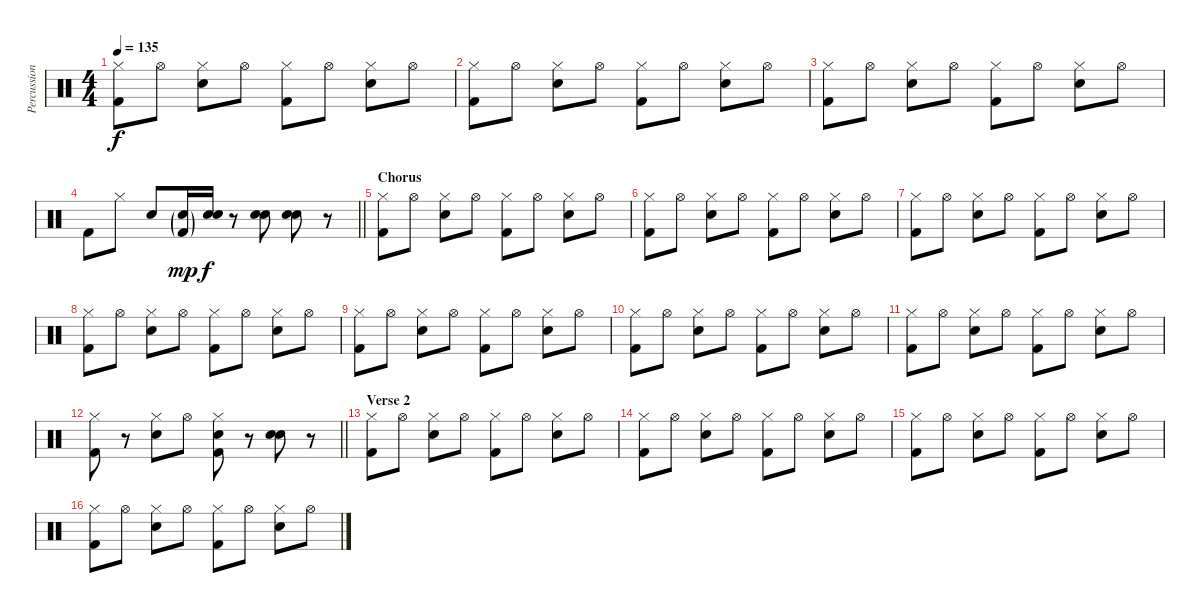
\track ("Percussion" "Percussion") {instrument percussion}
\staff {score}
\articulation defaults
\ts (4 4)
\tempo 135
\clef neutral
\ks c
("Hi-Hat (closed)" "Kick (hit) 2").8{dy f} "Hi-Hat (open)".8 ("Hi-Hat (closed)" "Snare (hit) 2").8 "Hi-Hat (open)".8 ("Hi-Hat (closed)" "Kick (hit) 2").8 "Hi-Hat (open)".8 ("Hi-Hat (closed)" "Snare (hit) 2").8 "Hi-Hat (open)".8 |
("Hi-Hat (closed)" "Kick (hit) 2").8 "Hi-Hat (open)".8 ("Hi-Hat (closed)" "Snare (hit) 2").8 "Hi-Hat (open)".8 ("Hi-Hat (closed)" "Kick (hit) 2").8 "Hi-Hat (open)".8 ("Hi-Hat (closed)" "Snare (hit) 2").8 "Hi-Hat (open)".8 |
("Hi-Hat (closed)" "Kick (hit) 2").8 "Hi-Hat (open)".8 ("Hi-Hat (closed)" "Snare (hit) 2").8 "Hi-Hat (open)".8 ("Hi-Hat (closed)" "Kick (hit) 2").8 "Hi-Hat (open)".8 ("Hi-Hat (closed)" "Snare (hit) 2").8 "Hi-Hat (open)".8 |
\barLineRight lightlight "Kick (hit) 2".8 "Hi-Hat (closed)".8 "Snare (hit) 2".8
("Electric Snare (hit)"{g} "Kick (hit) 2"{g}).16{dy mp} ("Electric Snare (hit)" "Snare (hit) 2").16{dy f} r.8 ("Electric Snare (hit)" "Snare (hit) 2").8 ("Electric Snare (hit)" "Snare (hit) 2").8 r.8 |
\section ("" "Chorus")
("Hi-Hat (closed)" "Kick (hit) 2").8 "Hi-Hat (open)".8 ("Hi-Hat (closed)" "Snare (hit) 2").8 "Hi-Hat (open)".8 ("Hi-Hat (closed)" "Kick (hit) 2").8 "Hi-Hat (open)".8 ("Hi-Hat (closed)" "Snare (hit) 2").8 "Hi-Hat (open)".8 |
("Hi-Hat (closed)" "Kick (hit) 2").8 "Hi-Hat (open)".8 ("Hi-Hat (closed)" "Snare (hit) 2").8 "Hi-Hat (open)".8 ("Hi-Hat (closed)" "Kick (hit) 2").8 "Hi-Hat (open)".8 ("Hi-Hat (closed)" "Snare (hit) 2").8 "Hi-Hat (open)".8 |
("Hi-Hat (closed)" "Kick (hit) 2").8 "Hi-Hat (open)".8 ("Hi-Hat (closed)" "Snare (hit) 2").8 "Hi-Hat (open)".8 ("Hi-Hat (closed)" "Kick (hit) 2").8 "Hi-Hat (open)".8 ("Hi-Hat (closed)" "Snare (hit) 2").8 "Hi-Hat (open)".8 |
("Hi-Hat (closed)" "Kick (hit) 2").8 "Hi-Hat (open)".8 ("Hi-Hat (closed)" "Snare (hit) 2").8 "Hi-Hat (open)".8 ("Hi-Hat (closed)" "Kick (hit) 2").8 "Hi-Hat (open)".8 ("Hi-Hat (closed)" "Snare (hit) 2").8 "Hi-Hat (open)".8 |
("Hi-Hat (closed)" "Kick (hit) 2").8 "Hi-Hat (open)".8 ("Hi-Hat (closed)" "Snare (hit) 2").8 "Hi-Hat (open)".8 ("Hi-Hat (closed)" "Kick (hit) 2").8 "Hi-Hat (open)".8 ("Hi-Hat (closed)" "Snare (hit) 2").8 "Hi-Hat (open)".8 |
("Hi-Hat (closed)" "Kick (hit) 2").8 "Hi-Hat (open)".8 ("Hi-Hat (closed)" "Snare (hit) 2").8 "Hi-Hat (open)".8 ("Hi-Hat (closed)" "Kick (hit) 2").8 "Hi-Hat (open)".8 ("Hi-Hat (closed)" "Snare (hit) 2").8 "Hi-Hat (open)".8 |
("Hi-Hat (closed)" "Kick (hit) 2").8 "Hi-Hat (open)".8 ("Hi-Hat (closed)" "Snare (hit) 2").8 "Hi-Hat (open)".8 ("Hi-Hat (closed)" "Kick (hit) 2").8 "Hi-Hat (open)".8 ("Hi-Hat (closed)" "Snare (hit) 2").8 "Hi-Hat (open)".8 |
\barLineRight lightlight
("Hi-Hat (closed)" "Kick (hit) 2").8 r.8 ("Hi-Hat (closed)" "Snare (hit) 2").8 "Hi-Hat (open)".8 ("Electric Snare (hit)" "Hi-Hat (closed)" "Kick (hit) 2").8 r.8 ("Electric Snare (hit)" "Snare (hit) 2").8 r.8 |
\section ("" "Verse 2")
("Hi-Hat (closed)" "Kick (hit) 2").8 "Hi-Hat (open)".8 ("Hi-Hat (closed)" "Snare (hit) 2").8 "Hi-Hat (open)".8 ("Hi-Hat (closed)" "Kick (hit) 2").8 "Hi-Hat (open)".8 ("Hi-Hat (closed)" "Snare (hit) 2").8 "Hi-Hat (open)".8 |
("Hi-Hat (closed)" "Kick (hit) 2").8 "Hi-Hat (open)".8 ("Hi-Hat (closed)" "Snare (hit) 2").8 "Hi-Hat (open)".8 ("Hi-Hat (closed)" "Kick (hit) 2").8 "Hi-Hat (open)".8 ("Hi-Hat (closed)" "Snare (hit) 2").8 "Hi-Hat (open)".8 |
("Hi-Hat (closed)" "Kick (hit) 2").8 "Hi-Hat (open)".8 ("Hi-Hat (closed)" "Snare (hit) 2").8 "Hi-Hat (open)".8 ("Hi-Hat (closed)" "Kick (hit) 2").8 "Hi-Hat (open)".8 ("Hi-Hat (closed)" "Snare (hit) 2").8 "Hi-Hat (open)".8 |
("Hi-Hat (closed)" "Kick (hit) 2").8 "Hi-Hat (open)".8 ("Hi-Hat (closed)" "Snare (hit) 2").8 "Hi-Hat (open)".8 ("Hi-Hat (closed)" "Kick (hit) 2").8 "Hi-Hat (open)".8 ("Hi-Hat (closed)" "Snare (hit) 2").8 "Hi-Hat (open)".8
